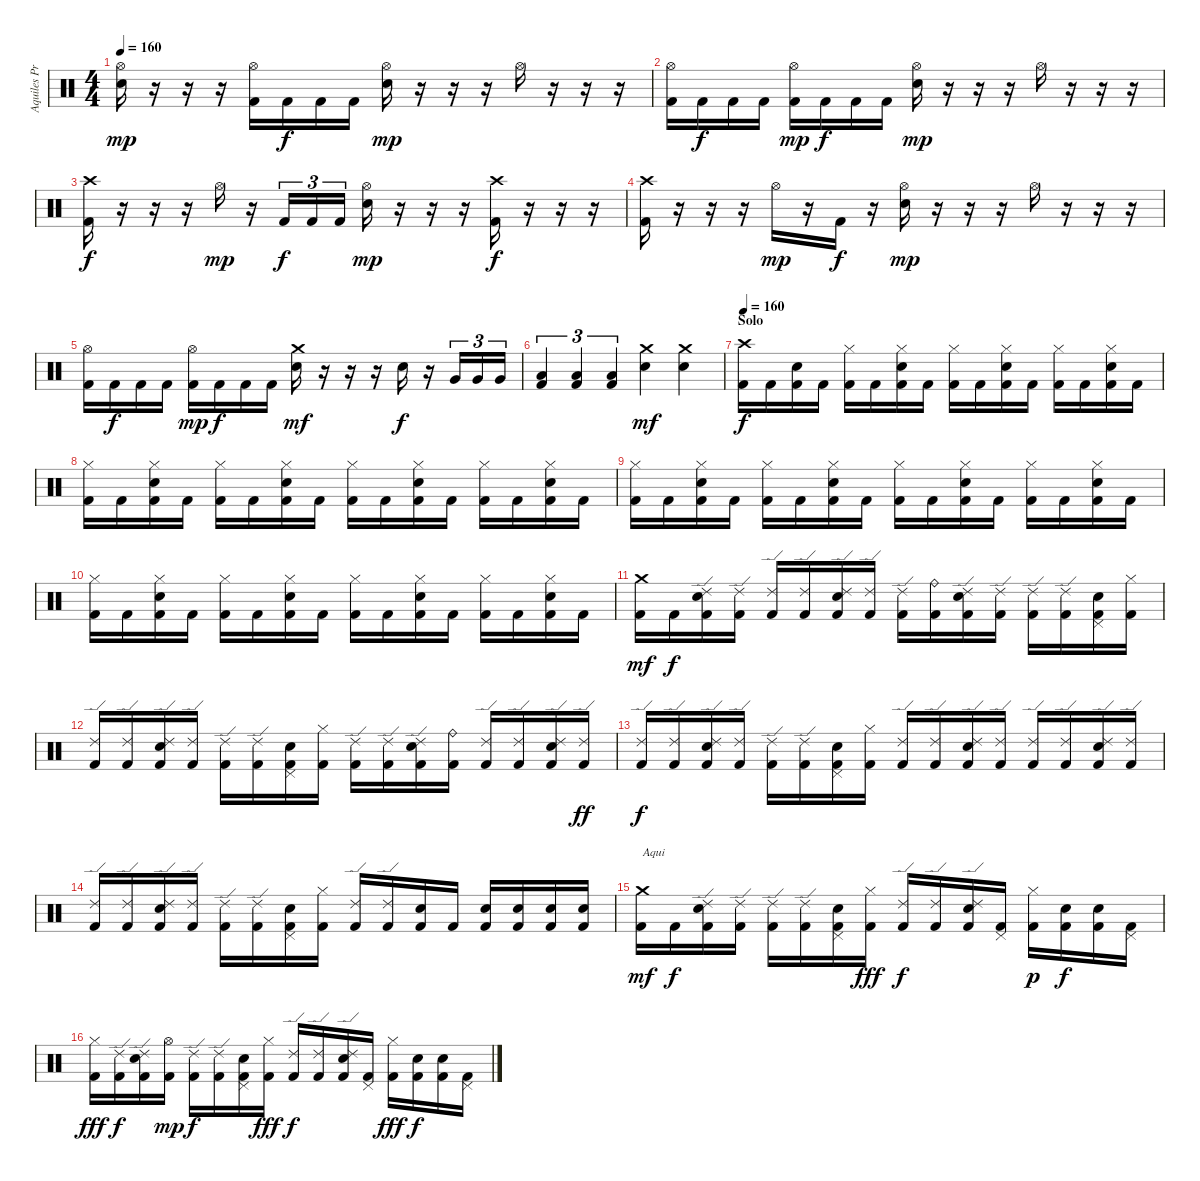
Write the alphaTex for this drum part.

\track ("Aquiles Priester" "Aquiles Pr") {instrument percussion}
\staff {score}
\articulation defaults
\ts (4 4)
\tempo 160
\clef neutral
\ks c
("Hi-Hat (open)" "Snare (hit) 2").16{dy mp} r.16 r.16 r.16 ("Hi-Hat (open)" "Kick (hit) 2").16 "Kick (hit) 2".16{dy f} "Kick (hit) 2".16 "Kick (hit) 2".16 ("Hi-Hat (open)" "Snare (hit) 2").16{dy mp} r.16 r.16 r.16 "Hi-Hat (open)".16 r.16 r.16 r.16 |
("Hi-Hat (open)" "Kick (hit) 2").16 "Kick (hit) 2".16{dy f} "Kick (hit) 2".16 "Kick (hit) 2".16 ("Hi-Hat (open)" "Kick (hit) 2").16{dy mp} "Kick (hit) 2".16{dy f} "Kick (hit) 2".16 "Kick (hit) 2".16 ("Hi-Hat (open)" "Snare (hit) 2").16{dy mp} r.16 r.16 r.16 "Hi-Hat (open)".16 r.16 r.16 r.16 |
("Crash high (hit)" "Kick (hit) 2").16{dy f} r.16 r.16 r.16 "Hi-Hat (open)".16{dy mp} r.16 "Kick (hit) 2".16{tu (3 2) dy f} "Kick (hit) 2".16{tu (3 2)} "Kick (hit) 2".16{tu (3 2)} ("Hi-Hat (open)" "Snare (hit) 2").16{dy mp} r.16 r.16 r.16 ("Crash high (hit)" "Kick (hit) 2").16{dy f} r.16 r.16 r.16 |
("Crash high (hit)" "Kick (hit) 2").16 r.16 r.16 r.16 "Hi-Hat (open)".16{dy mp} r.16 "Kick (hit) 2".16{dy f} r.16 ("Hi-Hat (open)" "Snare (hit) 2").16{dy mp} r.16 r.16 r.16 "Hi-Hat (open)".16 r.16 r.16 r.16 |
("Hi-Hat (open)" "Kick (hit) 2").16 "Kick (hit) 2".16{dy f} "Kick (hit) 2".16 "Kick (hit) 2".16 ("Hi-Hat (open)" "Kick (hit) 2").16{dy mp} "Kick (hit) 2".16{dy f} "Kick (hit) 2".16 "Kick (hit) 2".16 ("Crash medium (hit)" "Snare (hit) 2").16{dy mf} r.16 r.16 r.16 "Snare (hit) 2".16{dy f} r.16 "Very Low Tom (hit)".16{tu (3 2)} "Very Low Tom (hit)".16{tu (3 2)} "Very Low Tom (hit)".16{tu (3 2)} |
("Low Floor Tom (hit)" "Kick (hit) 2").4{tu (3 2)} ("Low Floor Tom (hit)" "Kick (hit) 2").4{tu (3 2)} ("Low Floor Tom (hit)" "Kick (hit) 2").4{tu (3 2)} ("Crash medium (hit)" "Snare (hit) 2").4{dy mf} ("Crash medium (hit)" "Snare (hit) 2").4 |
\section ("" "Solo")
\tempo 160
("Crash high (hit)" "Kick (hit) 2").16{dy f} "Kick (hit) 2".16 ("Snare (hit) 2" "Kick (hit) 2").16 "Kick (hit) 2".16 ("Hi-Hat (closed)" "Kick (hit) 2").16 "Kick (hit) 2".16 ("Hi-Hat (closed)" "Snare (hit) 2" "Kick (hit) 2").16 "Kick (hit) 2".16 ("Hi-Hat (closed)" "Kick (hit) 2").16 "Kick (hit) 2".16 ("Hi-Hat (closed)" "Snare (hit) 2" "Kick (hit) 2").16 "Kick (hit) 2".16 ("Hi-Hat (closed)" "Kick (hit) 2").16 "Kick (hit) 2".16 ("Hi-Hat (closed)" "Snare (hit) 2" "Kick (hit) 2").16 "Kick (hit) 2".16 |
("Hi-Hat (closed)" "Kick (hit) 2").16 "Kick (hit) 2".16 ("Hi-Hat (closed)" "Snare (hit) 2" "Kick (hit) 2").16 "Kick (hit) 2".16 ("Hi-Hat (closed)" "Kick (hit) 2").16 "Kick (hit) 2".16 ("Hi-Hat (closed)" "Snare (hit) 2" "Kick (hit) 2").16 "Kick (hit) 2".16 ("Hi-Hat (closed)" "Kick (hit) 2").16 "Kick (hit) 2".16 ("Hi-Hat (closed)" "Snare (hit) 2" "Kick (hit) 2").16 "Kick (hit) 2".16 ("Hi-Hat (closed)" "Kick (hit) 2").16 "Kick (hit) 2".16 ("Hi-Hat (closed)" "Snare (hit) 2" "Kick (hit) 2").16 "Kick (hit) 2".16 |
("Hi-Hat (closed)" "Kick (hit) 2").16 "Kick (hit) 2".16 ("Hi-Hat (closed)" "Snare (hit) 2" "Kick (hit) 2").16 "Kick (hit) 2".16 ("Hi-Hat (closed)" "Kick (hit) 2").16 "Kick (hit) 2".16 ("Hi-Hat (closed)" "Snare (hit) 2" "Kick (hit) 2").16 "Kick (hit) 2".16 ("Hi-Hat (closed)" "Kick (hit) 2").16 "Kick (hit) 2".16 ("Hi-Hat (closed)" "Snare (hit) 2" "Kick (hit) 2").16 "Kick (hit) 2".16 ("Hi-Hat (closed)" "Kick (hit) 2").16 "Kick (hit) 2".16 ("Hi-Hat (closed)" "Snare (hit) 2" "Kick (hit) 2").16 "Kick (hit) 2".16 |
("Hi-Hat (closed)" "Kick (hit) 2").16 "Kick (hit) 2".16 ("Hi-Hat (closed)" "Snare (hit) 2" "Kick (hit) 2").16 "Kick (hit) 2".16 ("Hi-Hat (closed)" "Kick (hit) 2").16 "Kick (hit) 2".16 ("Hi-Hat (closed)" "Snare (hit) 2" "Kick (hit) 2").16 "Kick (hit) 2".16 ("Hi-Hat (closed)" "Kick (hit) 2").16 "Kick (hit) 2".16 ("Hi-Hat (closed)" "Snare (hit) 2" "Kick (hit) 2").16 "Kick (hit) 2".16 ("Hi-Hat (closed)" "Kick (hit) 2").16 "Kick (hit) 2".16 ("Hi-Hat (closed)" "Snare (hit) 2" "Kick (hit) 2").16 "Kick (hit) 2".16 |
("Crash medium (hit)" "Kick (hit) 2").16{dy mf} "Kick (hit) 2".16{dy f} ("Ride (edge) 2" "Snare (hit) 2" "Kick (hit) 2").16 ("Ride (edge) 2" "Kick (hit) 2").16 ("Ride (edge) 2" "Kick (hit) 2").16 ("Ride (edge) 2" "Kick (hit) 2").16 ("Ride (edge) 2" "Snare (hit) 2" "Kick (hit) 2").16 ("Ride (edge) 2" "Kick (hit) 2").16 ("Ride (edge) 2" "Kick (hit) 2").16 ("Ride (bell)" "Kick (hit) 2").16 ("Ride (edge) 2" "Snare (hit) 2" "Kick (hit) 2").16 ("Ride (edge) 2" "Kick (hit) 2").16 ("Ride (edge) 2" "Kick (hit) 2").16 ("Ride (edge) 2" "Kick (hit) 2").16 ("Pedal Hi-Hat (hit)" "Snare (hit) 2" "Kick (hit) 2").16 ("Hi-Hat (closed)" "Kick (hit) 2").16 |
("Ride (edge) 2" "Kick (hit) 2").16 ("Ride (edge) 2" "Kick (hit) 2").16 ("Ride (edge) 2" "Snare (hit) 2" "Kick (hit) 2").16 ("Ride (edge) 2" "Kick (hit) 2").16 ("Ride (edge) 2" "Kick (hit) 2").16 ("Ride (edge) 2" "Kick (hit) 2").16 ("Pedal Hi-Hat (hit)" "Snare (hit) 2" "Kick (hit) 2").16 ("Hi-Hat (closed)" "Kick (hit) 2").16 ("Ride (edge) 2" "Kick (hit) 2").16 ("Ride (edge) 2" "Kick (hit) 2").16 ("Ride (edge) 2" "Snare (hit) 2" "Kick (hit) 2").16 ("Ride (bell)" "Kick (hit) 2").16 ("Ride (edge) 2" "Kick (hit) 2").16 ("Ride (edge) 2" "Kick (hit) 2").16 ("Ride (edge) 2" "Snare (hit) 2" "Kick (hit) 2").16 ("Ride (edge) 2" "Kick (hit) 2").16{dy ff} |
("Ride (edge) 2" "Kick (hit) 2").16{dy f} ("Ride (edge) 2" "Kick (hit) 2").16 ("Ride (edge) 2" "Snare (hit) 2" "Kick (hit) 2").16 ("Ride (edge) 2" "Kick (hit) 2").16 ("Ride (edge) 2" "Kick (hit) 2").16 ("Ride (edge) 2" "Kick (hit) 2").16 ("Pedal Hi-Hat (hit)" "Snare (hit) 2" "Kick (hit) 2").16 ("Hi-Hat (closed)" "Kick (hit) 2").16 ("Ride (edge) 2" "Kick (hit) 2").16 ("Ride (edge) 2" "Kick (hit) 2").16 ("Ride (edge) 2" "Snare (hit) 2" "Kick (hit) 2").16 ("Ride (edge) 2" "Kick (hit) 2").16 ("Ride (edge) 2" "Kick (hit) 2").16 ("Ride (edge) 2" "Kick (hit) 2").16 ("Ride (edge) 2" "Snare (hit) 2" "Kick (hit) 2").16 ("Ride (edge) 2" "Kick (hit) 2").16 |
("Ride (edge) 2" "Kick (hit) 2").16 ("Ride (edge) 2" "Kick (hit) 2").16 ("Ride (edge) 2" "Snare (hit) 2" "Kick (hit) 2").16 ("Ride (edge) 2" "Kick (hit) 2").16 ("Ride (edge) 2" "Kick (hit) 2").16 ("Ride (edge) 2" "Kick (hit) 2").16 ("Pedal Hi-Hat (hit)" "Snare (hit) 2" "Kick (hit) 2").16 ("Hi-Hat (closed)" "Kick (hit) 2").16 ("Ride (edge) 2" "Kick (hit) 2").16 ("Ride (edge) 2" "Kick (hit) 2").16 ("Snare (hit) 2" "Kick (hit) 2").16 "Kick (hit) 2".16 ("Snare (hit) 2" "Kick (hit) 2").16 ("Snare (hit) 2" "Kick (hit) 2").16 ("Snare (hit) 2" "Kick (hit) 2").16 ("Snare (hit) 2" "Kick (hit) 2").16 |
("Crash medium (hit)" "Kick (hit) 2").16{txt "Aqui" dy mf} "Kick (hit) 2".16{dy f} ("Ride (edge) 2" "Snare (hit) 2" "Kick (hit) 2").16 ("Ride (edge) 2" "Kick (hit) 2").16 ("Ride (edge) 2" "Kick (hit) 2").16 ("Ride (edge) 2" "Kick (hit) 2").16 ("Pedal Hi-Hat (hit)" "Snare (hit) 2" "Kick (hit) 2").16 ("Hi-Hat (closed)" "Kick (hit) 2").16{dy fff} ("Ride (edge) 2" "Kick (hit) 2").16{dy f} ("Ride (edge) 2" "Kick (hit) 2").16 ("Ride (edge) 2" "Snare (hit) 2" "Kick (hit) 2").16 ("Pedal Hi-Hat (hit)" "Kick (hit) 2").16 ("Hi-Hat (closed)" "Kick (hit) 2").16{dy p} ("Snare (hit) 2" "Kick (hit) 2").16{dy f} ("Snare (hit) 2" "Kick (hit) 2").16 ("Pedal Hi-Hat (hit)" "Kick (hit) 2").16 |
("Hi-Hat (closed)" "Kick (hit) 2").16{dy fff} ("Ride (edge) 2" "Kick (hit) 2").16{dy f} ("Ride (edge) 2" "Snare (hit) 2" "Kick (hit) 2").16 ("Hi-Hat (open)" "Kick (hit) 2").16{dy mp} ("Ride (edge) 2" "Kick (hit) 2").16{dy f} ("Ride (edge) 2" "Kick (hit) 2").16 ("Pedal Hi-Hat (hit)" "Snare (hit) 2" "Kick (hit) 2").16 ("Hi-Hat (closed)" "Kick (hit) 2").16{dy fff} ("Ride (edge) 2" "Kick (hit) 2").16{dy f} ("Ride (edge) 2" "Kick (hit) 2").16 ("Ride (edge) 2" "Snare (hit) 2" "Kick (hit) 2").16 ("Pedal Hi-Hat (hit)" "Kick (hit) 2").16 ("Hi-Hat (closed)" "Kick (hit) 2").16{dy fff} ("Snare (hit) 2" "Kick (hit) 2").16{dy f} ("Snare (hit) 2" "Kick (hit) 2").16 ("Pedal Hi-Hat (hit)" "Kick (hit) 2").16
